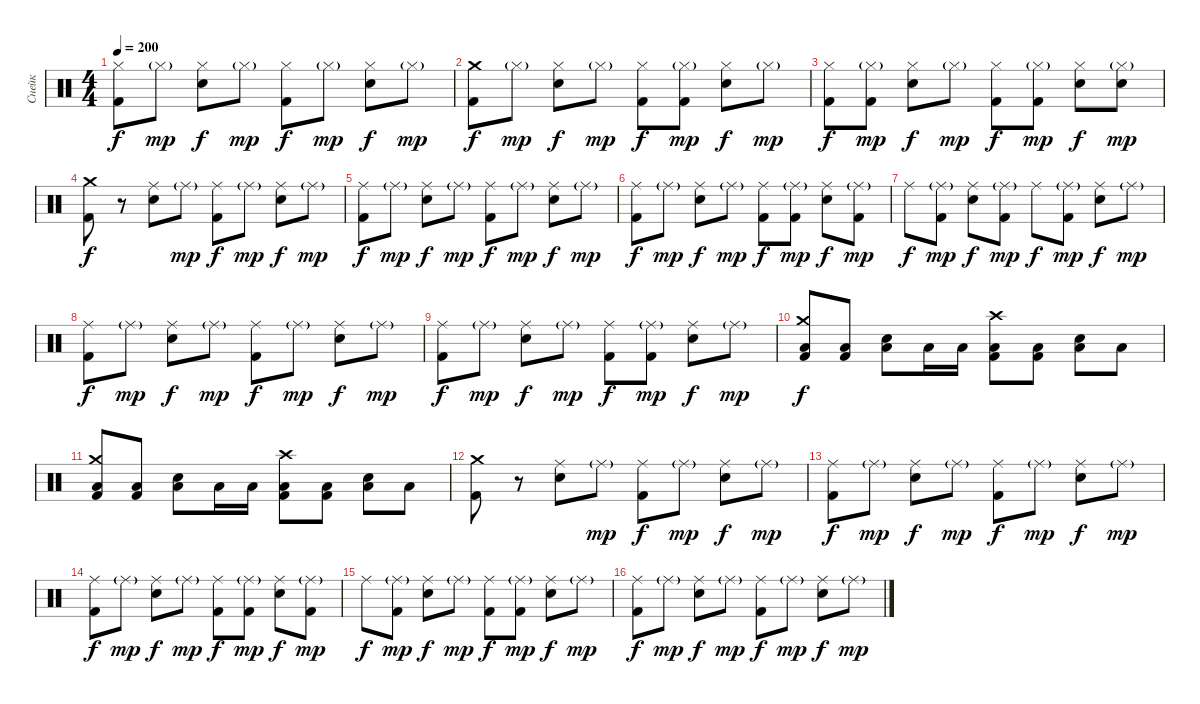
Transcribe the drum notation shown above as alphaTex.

\track ("Снейк" "Снейк") {instrument percussion}
\staff {score}
\articulation defaults
\ts (4 4)
\tempo 200
\clef neutral
\ks c
("Hi-Hat (closed)" "Kick (hit) 2").8{dy f} "Hi-Hat (closed)"{g}.8{dy mp} ("Hi-Hat (closed)" "Electric Snare (hit)").8{dy f} "Hi-Hat (closed)"{g}.8{dy mp} ("Hi-Hat (closed)" "Kick (hit) 2").8{dy f} "Hi-Hat (closed)"{g}.8{dy mp} ("Hi-Hat (closed)" "Electric Snare (hit)").8{dy f} "Hi-Hat (closed)"{g}.8{dy mp} |
("Crash medium (hit)" "Kick (hit) 2").8{dy f} "Hi-Hat (closed)"{g}.8{dy mp} ("Hi-Hat (closed)" "Electric Snare (hit)").8{dy f} "Hi-Hat (closed)"{g}.8{dy mp} ("Hi-Hat (closed)" "Kick (hit) 2").8{dy f} ("Hi-Hat (closed)"{g} "Kick (hit) 2").8{dy mp} ("Hi-Hat (closed)" "Electric Snare (hit)").8{dy f} "Hi-Hat (closed)"{g}.8{dy mp} |
("Hi-Hat (closed)" "Kick (hit) 2").8{dy f} ("Hi-Hat (closed)"{g} "Kick (hit) 2").8{dy mp} ("Hi-Hat (closed)" "Electric Snare (hit)").8{dy f} "Hi-Hat (closed)"{g}.8{dy mp} ("Hi-Hat (closed)" "Kick (hit) 2").8{dy f} ("Hi-Hat (closed)"{g} "Kick (hit) 2").8{dy mp} ("Hi-Hat (closed)" "Electric Snare (hit)").8{dy f} ("Hi-Hat (closed)"{g} "Electric Snare (hit)").8{dy mp} |
("Crash medium (hit)" "Kick (hit) 2").8{dy f} r.8 ("Ride (middle)" "Electric Snare (hit)").8 "Ride (middle)"{g}.8{dy mp} ("Ride (middle)" "Kick (hit) 2").8{dy f} "Ride (middle)"{g}.8{dy mp} ("Ride (middle)" "Electric Snare (hit)").8{dy f} "Ride (middle)"{g}.8{dy mp} |
("Ride (middle)" "Kick (hit) 2").8{dy f} "Ride (middle)"{g}.8{dy mp} ("Ride (middle)" "Electric Snare (hit)").8{dy f} "Ride (middle)"{g}.8{dy mp} ("Ride (middle)" "Kick (hit) 2").8{dy f} "Ride (middle)"{g}.8{dy mp} ("Ride (middle)" "Electric Snare (hit)").8{dy f} "Ride (middle)"{g}.8{dy mp} |
("Ride (middle)" "Kick (hit) 2").8{dy f} "Ride (middle)"{g}.8{dy mp} ("Ride (middle)" "Electric Snare (hit)").8{dy f} "Ride (middle)"{g}.8{dy mp} ("Ride (middle)" "Kick (hit) 2").8{dy f} ("Ride (middle)"{g} "Kick (hit) 2").8{dy mp} ("Ride (middle)" "Electric Snare (hit)").8{dy f} ("Ride (middle)"{g} "Kick (hit) 2").8{dy mp} |
"Ride (middle)".8{dy f} ("Ride (middle)"{g} "Kick (hit) 2").8{dy mp} ("Ride (middle)" "Electric Snare (hit)").8{dy f} ("Ride (middle)"{g} "Kick (hit) 2").8{dy mp} "Ride (middle)".8{dy f} ("Ride (middle)"{g} "Kick (hit) 2").8{dy mp} ("Ride (middle)" "Electric Snare (hit)").8{dy f} "Ride (middle)"{g}.8{dy mp} |
("Ride (middle)" "Kick (hit) 2").8{dy f} "Ride (middle)"{g}.8{dy mp} ("Ride (middle)" "Electric Snare (hit)").8{dy f} "Ride (middle)"{g}.8{dy mp} ("Ride (middle)" "Kick (hit) 2").8{dy f} "Ride (middle)"{g}.8{dy mp} ("Ride (middle)" "Electric Snare (hit)").8{dy f} "Ride (middle)"{g}.8{dy mp} |
("Ride (middle)" "Kick (hit) 2").8{dy f} "Ride (middle)"{g}.8{dy mp} ("Ride (middle)" "Electric Snare (hit)").8{dy f} "Ride (middle)"{g}.8{dy mp} ("Ride (middle)" "Kick (hit) 2").8{dy f} ("Ride (middle)"{g} "Kick (hit) 2").8{dy mp} ("Ride (middle)" "Electric Snare (hit)").8{dy f} "Ride (middle)"{g}.8{dy mp} |
("Low Floor Tom (hit)" "Kick (hit) 2" "Crash medium (hit)").8{dy f} ("Low Floor Tom (hit)" "Kick (hit) 2").8 ("Electric Snare (hit)" "Low Floor Tom (hit)").8 "Low Tom (hit)".16 "Low Floor Tom (hit)".16 ("Low Floor Tom (hit)" "Kick (hit) 2" "Crash high (hit)").8 ("Low Floor Tom (hit)" "Kick (hit) 2").8 ("Low Floor Tom (hit)" "Electric Snare (hit)").8 "Low Floor Tom (hit)".8 |
("Low Floor Tom (hit)" "Kick (hit) 2" "Crash medium (hit)").8 ("Low Floor Tom (hit)" "Kick (hit) 2").8 ("Electric Snare (hit)" "Low Floor Tom (hit)").8 "Low Tom (hit)".16 "Low Floor Tom (hit)".16 ("Low Floor Tom (hit)" "Kick (hit) 2" "Crash high (hit)").8 ("Low Floor Tom (hit)" "Kick (hit) 2").8 ("Low Floor Tom (hit)" "Electric Snare (hit)").8 "Low Floor Tom (hit)".8 |
("Crash medium (hit)" "Kick (hit) 2").8 r.8 ("Ride (middle)" "Electric Snare (hit)").8 "Ride (middle)"{g}.8{dy mp} ("Ride (middle)" "Kick (hit) 2").8{dy f} "Ride (middle)"{g}.8{dy mp} ("Ride (middle)" "Electric Snare (hit)").8{dy f} "Ride (middle)"{g}.8{dy mp} |
("Ride (middle)" "Kick (hit) 2").8{dy f} "Ride (middle)"{g}.8{dy mp} ("Ride (middle)" "Electric Snare (hit)").8{dy f} "Ride (middle)"{g}.8{dy mp} ("Ride (middle)" "Kick (hit) 2").8{dy f} "Ride (middle)"{g}.8{dy mp} ("Ride (middle)" "Electric Snare (hit)").8{dy f} "Ride (middle)"{g}.8{dy mp} |
("Ride (middle)" "Kick (hit) 2").8{dy f} "Ride (middle)"{g}.8{dy mp} ("Ride (middle)" "Electric Snare (hit)").8{dy f} "Ride (middle)"{g}.8{dy mp} ("Ride (middle)" "Kick (hit) 2").8{dy f} ("Ride (middle)"{g} "Kick (hit) 2").8{dy mp} ("Ride (middle)" "Electric Snare (hit)").8{dy f} ("Ride (middle)"{g} "Kick (hit) 2").8{dy mp} |
"Ride (middle)".8{dy f} ("Ride (middle)"{g} "Kick (hit) 2").8{dy mp} ("Ride (middle)" "Electric Snare (hit)").8{dy f} "Ride (middle)"{g}.8{dy mp} ("Ride (middle)" "Kick (hit) 2").8{dy f} ("Ride (middle)"{g} "Kick (hit) 2").8{dy mp} ("Ride (middle)" "Electric Snare (hit)").8{dy f} "Ride (middle)"{g}.8{dy mp} |
("Ride (middle)" "Kick (hit) 2").8{dy f} "Ride (middle)"{g}.8{dy mp} ("Ride (middle)" "Electric Snare (hit)").8{dy f} "Ride (middle)"{g}.8{dy mp} ("Ride (middle)" "Kick (hit) 2").8{dy f} "Ride (middle)"{g}.8{dy mp} ("Ride (middle)" "Electric Snare (hit)").8{dy f} "Ride (middle)"{g}.8{dy mp}
